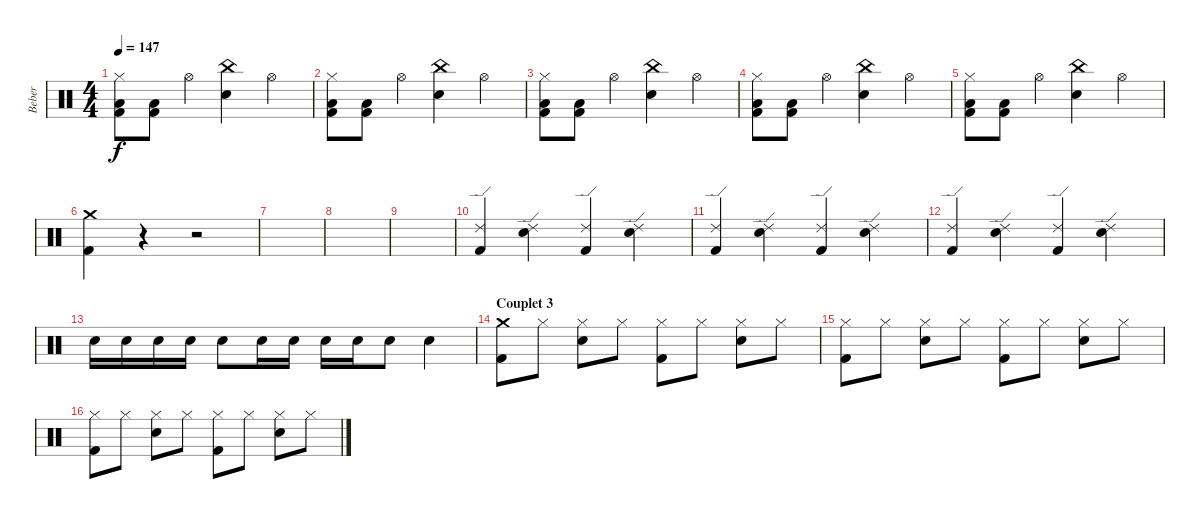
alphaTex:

\track ("Beber" "Beber") {instrument percussion}
\staff {score}
\articulation defaults
\ts (4 4)
\tempo 147
\clef neutral
\ks c
("Hi-Hat (closed)" "Low Floor Tom (hit)" "Kick (hit) 2").8{dy f} ("Low Floor Tom (hit)" "Kick (hit) 2").8 "Hi-Hat (open)".4 ("China (hit)" "Snare (hit) 2").4 "Hi-Hat (open)".4 |
("Hi-Hat (closed)" "Low Floor Tom (hit)" "Kick (hit) 2").8 ("Low Floor Tom (hit)" "Kick (hit) 2").8 "Hi-Hat (open)".4 ("China (hit)" "Snare (hit) 2").4 "Hi-Hat (open)".4 |
("Hi-Hat (closed)" "Low Floor Tom (hit)" "Kick (hit) 2").8 ("Low Floor Tom (hit)" "Kick (hit) 2").8 "Hi-Hat (open)".4 ("China (hit)" "Snare (hit) 2").4 "Hi-Hat (open)".4 |
("Hi-Hat (closed)" "Low Floor Tom (hit)" "Kick (hit) 2").8 ("Low Floor Tom (hit)" "Kick (hit) 2").8 "Hi-Hat (open)".4 ("China (hit)" "Snare (hit) 2").4 "Hi-Hat (open)".4 |
("Hi-Hat (closed)" "Low Floor Tom (hit)" "Kick (hit) 2").8 ("Low Floor Tom (hit)" "Kick (hit) 2").8 "Hi-Hat (open)".4 ("China (hit)" "Snare (hit) 2").4 "Hi-Hat (open)".4 |
("Crash medium (hit)" "Kick (hit) 2").4 r.4 r.2 |
|
|
|
("Ride (edge) 2" "Kick (hit) 2").4{volume 6} ("Ride (edge) 2" "Snare (hit) 2").4 ("Ride (edge) 2" "Kick (hit) 2").4 ("Ride (edge) 2" "Snare (hit) 2").4 |
("Ride (edge) 2" "Kick (hit) 2").4 ("Ride (edge) 2" "Snare (hit) 2").4 ("Ride (edge) 2" "Kick (hit) 2").4 ("Ride (edge) 2" "Snare (hit) 2").4 |
("Ride (edge) 2" "Kick (hit) 2").4{volume 13} ("Ride (edge) 2" "Snare (hit) 2").4 ("Ride (edge) 2" "Kick (hit) 2").4 ("Ride (edge) 2" "Snare (hit) 2").4 |
"Snare (hit) 2".16 "Snare (hit) 2".16 "Snare (hit) 2".16 "Snare (hit) 2".16 "Snare (hit) 2".8 "Snare (hit) 2".16 "Snare (hit) 2".16 "Snare (hit) 2".16 "Snare (hit) 2".16 "Snare (hit) 2".8 "Snare (hit) 2".4 |
\section ("" "Couplet 3")
("Crash medium (hit)" "Kick (hit) 2").8 "Hi-Hat (closed)".8 ("Hi-Hat (closed)" "Snare (hit) 2").8 "Hi-Hat (closed)".8 ("Hi-Hat (closed)" "Kick (hit) 2").8 "Hi-Hat (closed)".8 ("Hi-Hat (closed)" "Snare (hit) 2").8 "Hi-Hat (closed)".8 |
("Hi-Hat (closed)" "Kick (hit) 2").8 "Hi-Hat (closed)".8 ("Hi-Hat (closed)" "Snare (hit) 2").8 "Hi-Hat (closed)".8 ("Hi-Hat (closed)" "Kick (hit) 2").8 "Hi-Hat (closed)".8 ("Hi-Hat (closed)" "Snare (hit) 2").8 "Hi-Hat (closed)".8 |
("Hi-Hat (closed)" "Kick (hit) 2").8 "Hi-Hat (closed)".8 ("Hi-Hat (closed)" "Snare (hit) 2").8 "Hi-Hat (closed)".8 ("Hi-Hat (closed)" "Kick (hit) 2").8 "Hi-Hat (closed)".8 ("Hi-Hat (closed)" "Snare (hit) 2").8 "Hi-Hat (closed)".8
